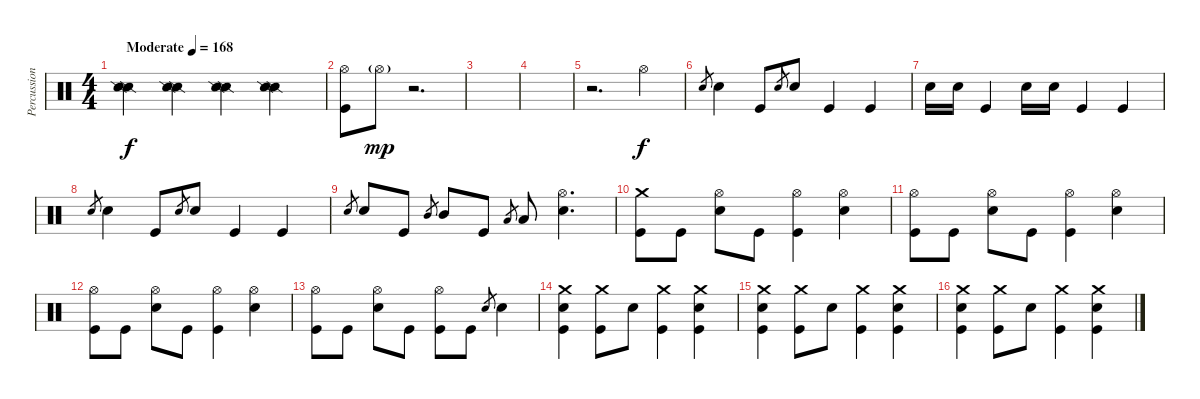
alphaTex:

\track ("Percussion" "Percussion") {instrument percussion}
\staff {score}
\articulation defaults
\ts (4 4)
\tempo (168 "Moderate")
\clef neutral
\ks c
("Snare (side stick) 2" "Snare (side stick) 2").4{dy f} ("Snare (side stick) 2" "Snare (side stick) 2").4 ("Snare (side stick) 2" "Snare (side stick) 2").4 ("Snare (side stick) 2" "Snare (side stick) 2").4 |
("Hi-Hat (open)" "Kick (hit)").8 "Hi-Hat (open)"{g}.8{dy mp} r.2{d} |
|
|
r.2{d} "Hi-Hat (open)".4{dy f} |
"Electric Snare (hit)".8{gr} "Electric Snare (hit)".4 "Kick (hit)".8 "Electric Snare (hit)".8{gr} "Electric Snare (hit)".8 "Kick (hit)".4 "Kick (hit)".4 |
"Electric Snare (hit)".16 "Electric Snare (hit)".16 "Kick (hit)".4 "Electric Snare (hit)".16 "Electric Snare (hit)".16 "Kick (hit)".4 "Kick (hit)".4 |
"Electric Snare (hit)".8{gr} "Electric Snare (hit)".4 "Kick (hit)".8 "Electric Snare (hit)".8{gr} "Electric Snare (hit)".8 "Kick (hit)".4 "Kick (hit)".4 |
"Electric Snare (hit)".8{gr} "Electric Snare (hit)".8 "Kick (hit)".8 "Mid Tom (hit)".8{gr} "Mid Tom (hit)".8 "Kick (hit)".8 "Low Tom (hit)".8{gr} "Low Tom (hit)".8 ("Hi-Hat (open)" "Electric Snare (hit)").4{d} |
("Crash medium (hit)" "Kick (hit)").8 "Kick (hit)".8 ("Hi-Hat (open)" "Electric Snare (hit)").8 "Kick (hit)".8 ("Hi-Hat (open)" "Kick (hit)").4 ("Hi-Hat (open)" "Electric Snare (hit)").4 |
("Hi-Hat (open)" "Kick (hit)").8 "Kick (hit)".8 ("Hi-Hat (open)" "Electric Snare (hit)").8 "Kick (hit)".8 ("Hi-Hat (open)" "Kick (hit)").4 ("Hi-Hat (open)" "Electric Snare (hit)").4 |
("Hi-Hat (open)" "Kick (hit)").8 "Kick (hit)".8 ("Hi-Hat (open)" "Electric Snare (hit)").8 "Kick (hit)".8 ("Hi-Hat (open)" "Kick (hit)").4 ("Hi-Hat (open)" "Electric Snare (hit)").4 |
("Hi-Hat (open)" "Kick (hit)").8 "Kick (hit)".8 ("Hi-Hat (open)" "Electric Snare (hit)").8 "Kick (hit)".8 ("Hi-Hat (open)" "Kick (hit)").8 "Kick (hit)".8 "Electric Snare (hit)".8{gr} "Electric Snare (hit)".4 |
("Crash medium (hit)" "Electric Snare (hit)" "Kick (hit)").4 ("Crash medium (hit)" "Kick (hit)").8 "Electric Snare (hit)".8 ("Crash medium (hit)" "Kick (hit)").4 ("Crash medium (hit)" "Electric Snare (hit)" "Kick (hit)").4 |
("Crash medium (hit)" "Electric Snare (hit)" "Kick (hit)").4 ("Crash medium (hit)" "Kick (hit)").8 "Electric Snare (hit)".8 ("Crash medium (hit)" "Kick (hit)").4 ("Crash medium (hit)" "Electric Snare (hit)" "Kick (hit)").4 |
("Crash medium (hit)" "Electric Snare (hit)" "Kick (hit)").4 ("Crash medium (hit)" "Kick (hit)").8 "Electric Snare (hit)".8 ("Crash medium (hit)" "Kick (hit)").4 ("Crash medium (hit)" "Electric Snare (hit)" "Kick (hit)").4
